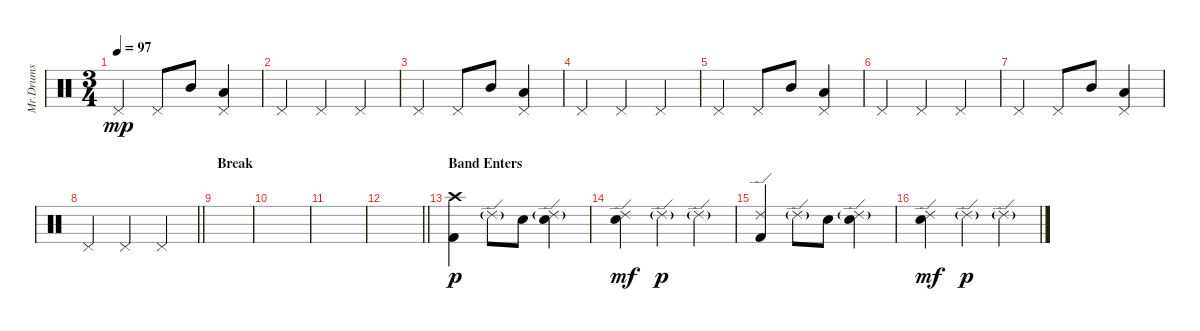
\track ("Mr.Drums" "Mr.Drums") {instrument percussion}
\staff {score}
\articulation defaults
\ts (3 4)
\tempo 97
\clef neutral
\ks c "Pedal Hi-Hat (hit)".4{dy mp} "Pedal Hi-Hat (hit)".8 "Mid Tom (hit)".8
("Pedal Hi-Hat (hit)" "Low Floor Tom (hit)").4 |
"Pedal Hi-Hat (hit)".4 "Pedal Hi-Hat (hit)".4 "Pedal Hi-Hat (hit)".4 |
"Pedal Hi-Hat (hit)".4 "Pedal Hi-Hat (hit)".8 "Mid Tom (hit)".8 ("Pedal Hi-Hat (hit)" "Low Floor Tom (hit)").4 |
"Pedal Hi-Hat (hit)".4 "Pedal Hi-Hat (hit)".4 "Pedal Hi-Hat (hit)".4 |
"Pedal Hi-Hat (hit)".4 "Pedal Hi-Hat (hit)".8 "Mid Tom (hit)".8 ("Pedal Hi-Hat (hit)" "Low Floor Tom (hit)").4 |
"Pedal Hi-Hat (hit)".4 "Pedal Hi-Hat (hit)".4 "Pedal Hi-Hat (hit)".4 |
"Pedal Hi-Hat (hit)".4 "Pedal Hi-Hat (hit)".8 "Mid Tom (hit)".8 ("Pedal Hi-Hat (hit)" "Low Floor Tom (hit)").4 |
\barLineRight lightlight "Pedal Hi-Hat (hit)".4 "Pedal Hi-Hat (hit)".4 "Pedal Hi-Hat (hit)".4
|
\section ("" "Break")
|
|
|
\barLineRight lightlight
|
\section ("" "Band Enters")
("Crash high (hit)" "Kick (hit) 2").4{dy p} "Ride (edge) 2"{g}.8 "Electric Snare (hit)".8 ("Ride (edge) 2"{g} "Electric Snare (hit)").4 |
("Ride (edge) 2" "Electric Snare (hit)").4{dy mf} "Ride (edge) 2"{g}.4{dy p} "Ride (edge) 2"{g}.4 |
("Ride (edge) 2" "Kick (hit) 2").4 "Ride (edge) 2"{g}.8 "Electric Snare (hit)".8 ("Ride (edge) 2"{g} "Electric Snare (hit)").4 |
("Ride (edge) 2" "Electric Snare (hit)").4{dy mf} "Ride (edge) 2"{g}.4{dy p} "Ride (edge) 2"{g}.4
